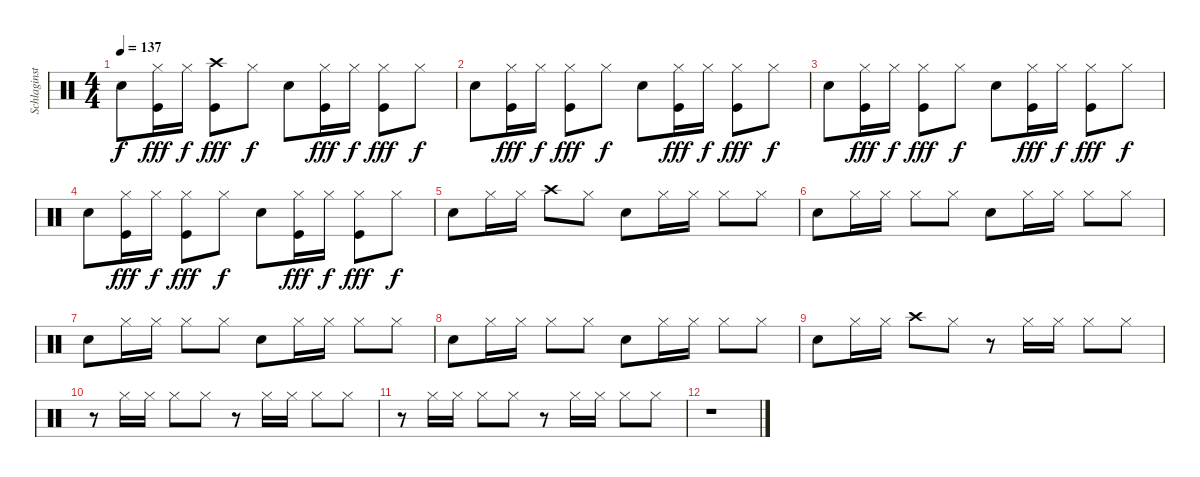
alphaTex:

\track ("Schlaginstrument" "Schlaginst") {instrument percussion}
\staff {score}
\articulation defaults
\ts (4 4)
\tempo 137
\clef neutral
\ks c "Hand Clap (hit)".8{dy f}
("Hi-Hat (closed)" "Kick (hit)").16{dy fff} "Hi-Hat (closed)".16{dy f} ("Crash high (hit)" "Kick (hit)").8{dy fff} "Hi-Hat (closed)".8{dy f} "Hand Clap (hit)".8 ("Hi-Hat (closed)" "Kick (hit)").16{dy fff} "Hi-Hat (closed)".16{dy f} ("Hi-Hat (closed)" "Kick (hit)").8{dy fff} "Hi-Hat (closed)".8{dy f} |
"Hand Clap (hit)".8 ("Hi-Hat (closed)" "Kick (hit)").16{dy fff} "Hi-Hat (closed)".16{dy f} ("Hi-Hat (closed)" "Kick (hit)").8{dy fff} "Hi-Hat (closed)".8{dy f} "Hand Clap (hit)".8 ("Hi-Hat (closed)" "Kick (hit)").16{dy fff} "Hi-Hat (closed)".16{dy f} ("Hi-Hat (closed)" "Kick (hit)").8{dy fff} "Hi-Hat (closed)".8{dy f} |
"Hand Clap (hit)".8 ("Hi-Hat (closed)" "Kick (hit)").16{dy fff} "Hi-Hat (closed)".16{dy f} ("Hi-Hat (closed)" "Kick (hit)").8{dy fff} "Hi-Hat (closed)".8{dy f} "Hand Clap (hit)".8 ("Hi-Hat (closed)" "Kick (hit)").16{dy fff} "Hi-Hat (closed)".16{dy f} ("Hi-Hat (closed)" "Kick (hit)").8{dy fff} "Hi-Hat (closed)".8{dy f} |
"Hand Clap (hit)".8 ("Hi-Hat (closed)" "Kick (hit)").16{dy fff} "Hi-Hat (closed)".16{dy f} ("Hi-Hat (closed)" "Kick (hit)").8{dy fff} "Hi-Hat (closed)".8{dy f} "Hand Clap (hit)".8 ("Hi-Hat (closed)" "Kick (hit)").16{dy fff} "Hi-Hat (closed)".16{dy f} ("Hi-Hat (closed)" "Kick (hit)").8{dy fff} "Hi-Hat (closed)".8{dy f} |
"Hand Clap (hit)".8 "Hi-Hat (closed)".16 "Hi-Hat (closed)".16 "Crash high (hit)".8 "Hi-Hat (closed)".8 "Hand Clap (hit)".8 "Hi-Hat (closed)".16 "Hi-Hat (closed)".16 "Hi-Hat (closed)".8 "Hi-Hat (closed)".8 |
"Hand Clap (hit)".8 "Hi-Hat (closed)".16 "Hi-Hat (closed)".16 "Hi-Hat (closed)".8 "Hi-Hat (closed)".8 "Hand Clap (hit)".8 "Hi-Hat (closed)".16 "Hi-Hat (closed)".16 "Hi-Hat (closed)".8 "Hi-Hat (closed)".8 |
"Hand Clap (hit)".8 "Hi-Hat (closed)".16 "Hi-Hat (closed)".16 "Hi-Hat (closed)".8 "Hi-Hat (closed)".8 "Hand Clap (hit)".8 "Hi-Hat (closed)".16 "Hi-Hat (closed)".16 "Hi-Hat (closed)".8 "Hi-Hat (closed)".8 |
"Hand Clap (hit)".8 "Hi-Hat (closed)".16 "Hi-Hat (closed)".16 "Hi-Hat (closed)".8 "Hi-Hat (closed)".8 "Hand Clap (hit)".8 "Hi-Hat (closed)".16 "Hi-Hat (closed)".16 "Hi-Hat (closed)".8 "Hi-Hat (closed)".8 |
"Hand Clap (hit)".8 "Hi-Hat (closed)".16 "Hi-Hat (closed)".16 "Crash high (hit)".8 "Hi-Hat (closed)".8 r.8 "Hi-Hat (closed)".16 "Hi-Hat (closed)".16 "Hi-Hat (closed)".8 "Hi-Hat (closed)".8 |
r.8 "Hi-Hat (closed)".16 "Hi-Hat (closed)".16 "Hi-Hat (closed)".8 "Hi-Hat (closed)".8 r.8 "Hi-Hat (closed)".16 "Hi-Hat (closed)".16 "Hi-Hat (closed)".8 "Hi-Hat (closed)".8 |
r.8 "Hi-Hat (closed)".16 "Hi-Hat (closed)".16 "Hi-Hat (closed)".8 "Hi-Hat (closed)".8 r.8 "Hi-Hat (closed)".16 "Hi-Hat (closed)".16 "Hi-Hat (closed)".8 "Hi-Hat (closed)".8 |
r.1
